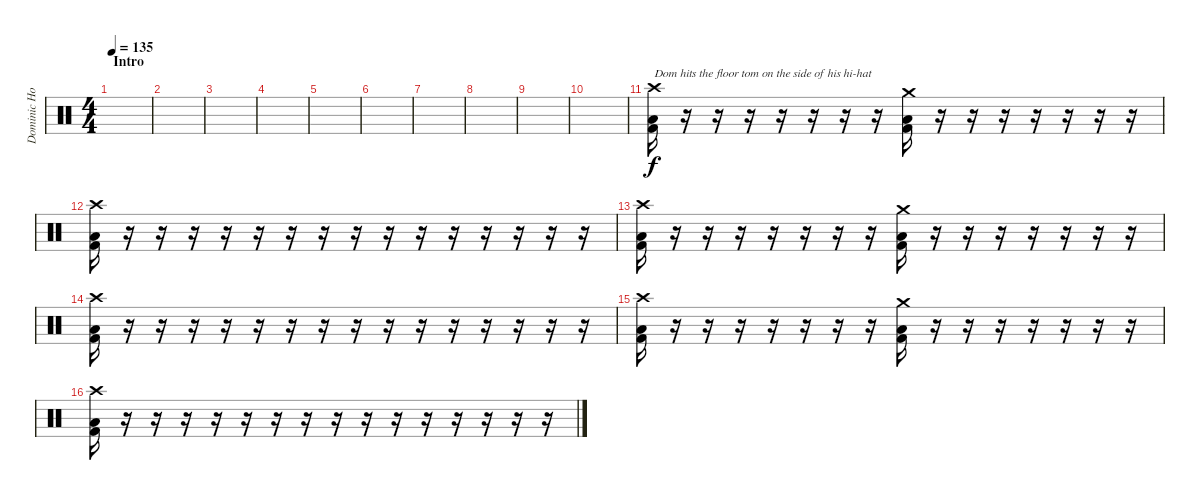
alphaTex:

\track ("Dominic Howard (Drums)" "Dominic Ho") {instrument percussion}
\staff {score}
\articulation defaults
\ts (4 4)
\section ("" "Intro")
\tempo 135
\clef neutral
\ks c
|
|
|
|
|
|
|
|
|
|
("Crash high (hit)" "Low Floor Tom (hit)" "Kick (hit) 2").16{txt "Dom hits the floor tom on the side of his hi-hat" volume 3} r.16 r.16 r.16 r.16 r.16 r.16 r.16 ("Crash medium (hit)" "Low Floor Tom (hit)" "Kick (hit) 2").16 r.16 r.16 r.16 r.16 r.16 r.16 r.16 |
("Crash high (hit)" "Low Floor Tom (hit)" "Kick (hit) 2").16 r.16 r.16 r.16 r.16 r.16 r.16 r.16 r.16 r.16 r.16 r.16 r.16 r.16 r.16 r.16 |
("Crash high (hit)" "Low Floor Tom (hit)" "Kick (hit) 2").16 r.16 r.16 r.16 r.16 r.16 r.16 r.16 ("Crash medium (hit)" "Low Floor Tom (hit)" "Kick (hit) 2").16 r.16 r.16 r.16 r.16 r.16 r.16 r.16 |
("Crash high (hit)" "Low Floor Tom (hit)" "Kick (hit) 2").16 r.16 r.16 r.16 r.16 r.16 r.16 r.16 r.16 r.16 r.16 r.16 r.16 r.16 r.16 r.16 |
("Crash high (hit)" "Low Floor Tom (hit)" "Kick (hit) 2").16 r.16 r.16 r.16 r.16 r.16 r.16 r.16 ("Crash medium (hit)" "Low Floor Tom (hit)" "Kick (hit) 2").16 r.16 r.16 r.16 r.16 r.16 r.16 r.16 |
("Crash high (hit)" "Low Floor Tom (hit)" "Kick (hit) 2").16 r.16 r.16 r.16 r.16 r.16 r.16 r.16 r.16 r.16 r.16 r.16 r.16 r.16 r.16 r.16
